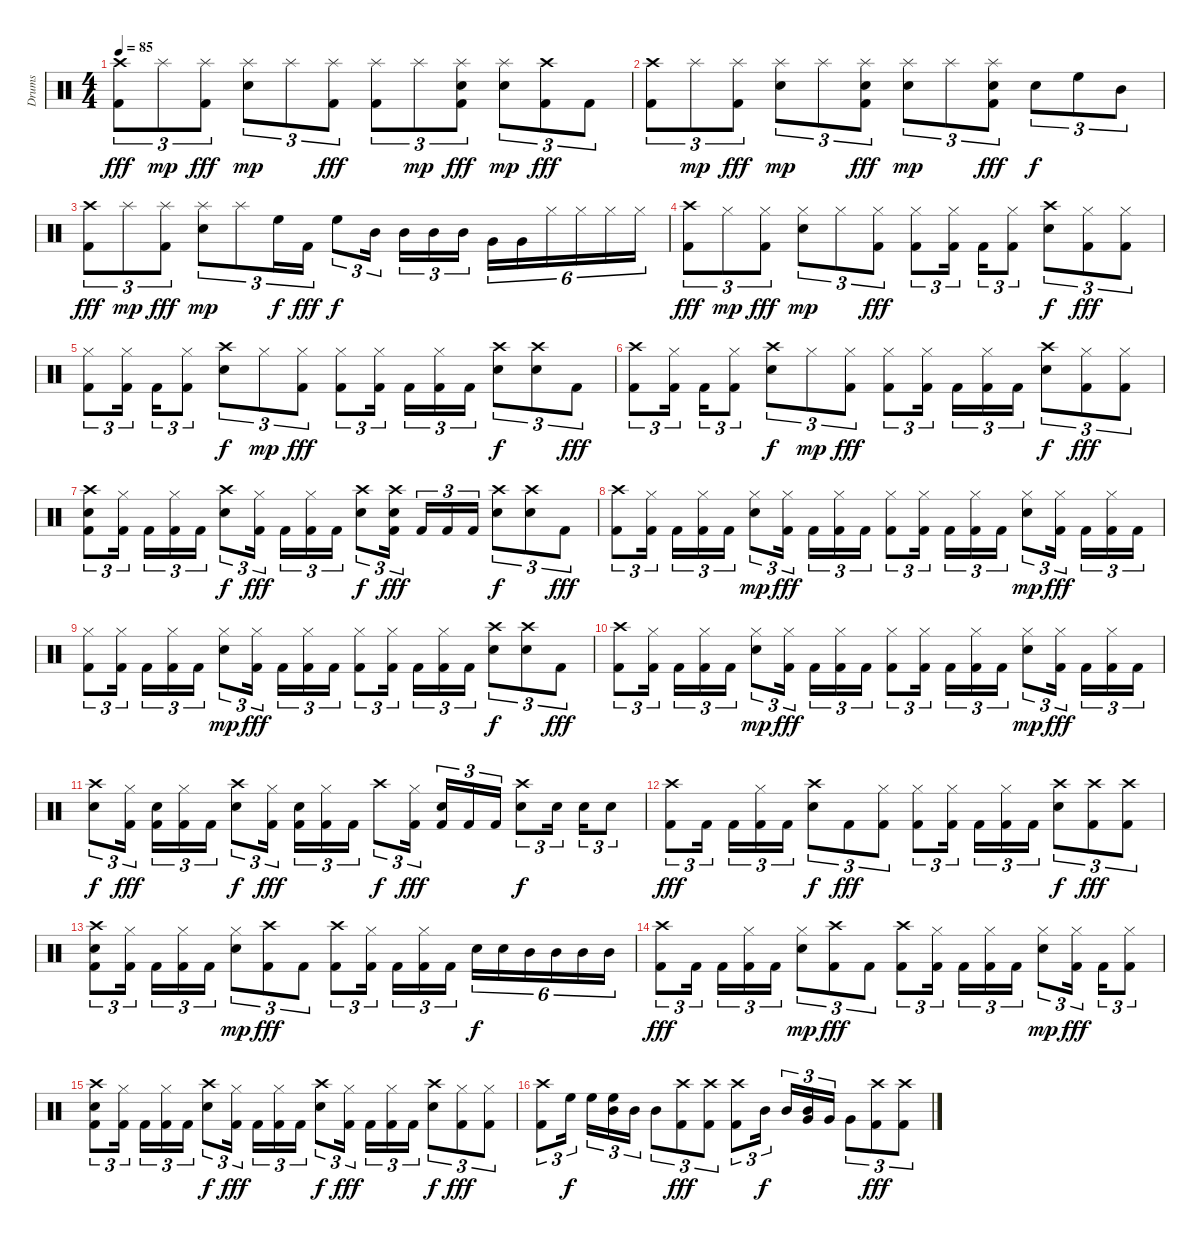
\track ("Drums" "Drums") {instrument percussion}
\staff {score}
\articulation defaults
\ts (4 4)
\tempo 85
\clef neutral
\ks c
("Crash high (hit)" "Kick (hit) 2").8{tu (3 2) dy fff} "Splash (hit)".8{tu (3 2) dy mp} ("Splash (hit)" "Kick (hit) 2").8{tu (3 2) dy fff} ("Snare (hit) 2" "Splash (hit)").8{tu (3 2) dy mp} "Splash (hit)".8{tu (3 2)} ("Splash (hit)" "Kick (hit) 2").8{tu (3 2) dy fff} ("Splash (hit)" "Kick (hit) 2").8{tu (3 2)} "Splash (hit)".8{tu (3 2) dy mp} ("Snare (hit) 2" "Splash (hit)" "Kick (hit) 2").8{tu (3 2) dy fff} ("Snare (hit) 2" "Splash (hit)").8{tu (3 2) dy mp} ("Crash high (hit)" "Kick (hit) 2").8{tu (3 2) dy fff} "Kick (hit) 2".8{tu (3 2)} |
("Crash high (hit)" "Kick (hit) 2").8{tu (3 2)} "Splash (hit)".8{tu (3 2) dy mp} ("Splash (hit)" "Kick (hit) 2").8{tu (3 2) dy fff} ("Snare (hit) 2" "Splash (hit)").8{tu (3 2) dy mp} "Splash (hit)".8{tu (3 2)} ("Snare (hit) 2" "Splash (hit)" "Kick (hit) 2").8{tu (3 2) dy fff} ("Snare (hit) 2" "Splash (hit)").8{tu (3 2) dy mp} "Splash (hit)".8{tu (3 2)} ("Snare (hit) 2" "Splash (hit)" "Kick (hit) 2").8{tu (3 2) dy fff} "Snare (hit) 2".8{tu (3 2) dy f} "High Floor Tom (hit)".8{tu (3 2)} "Mid Tom (hit)".8{tu (3 2)} |
("Crash high (hit)" "Kick (hit) 2").8{tu (3 2) dy fff} "Splash (hit)".8{tu (3 2) dy mp} ("Splash (hit)" "Kick (hit) 2").8{tu (3 2) dy fff} ("Snare (hit) 2" "Splash (hit)").8{tu (3 2) dy mp} "Splash (hit)".8{tu (3 2)} "High Floor Tom (hit)".16{tu (3 2) dy f} "Kick (hit) 2".16{tu (3 2) dy fff} "High Floor Tom (hit)".8{tu (3 2) dy f} "Mid Tom (hit)".16{tu (3 2)} "Mid Tom (hit)".16{tu (3 2)} "Mid Tom (hit)".16{tu (3 2)} "Mid Tom (hit)".16{tu (3 2)} "Very Low Tom (hit)".16{tu (6 4)} "Very Low Tom (hit)".16{tu (6 4)} "Hi-Hat (closed)".16{tu (6 4)} "Hi-Hat (closed)".16{tu (6 4)} "Hi-Hat (closed)".16{tu (6 4)} "Hi-Hat (closed)".16{tu (6 4)} |
("Crash high (hit)" "Kick (hit) 2").8{tu (3 2) dy fff} "Hi-Hat (closed)".8{tu (3 2) dy mp} ("Hi-Hat (closed)" "Kick (hit) 2").8{tu (3 2) dy fff} ("Snare (hit) 2" "Hi-Hat (closed)").8{tu (3 2) dy mp} "Hi-Hat (closed)".8{tu (3 2)} ("Hi-Hat (closed)" "Kick (hit) 2").8{tu (3 2) dy fff} ("Hi-Hat (closed)" "Kick (hit) 2").8{tu (3 2)} ("Hi-Hat (closed)" "Kick (hit) 2").16{tu (3 2)} "Kick (hit) 2".16{tu (3 2)} ("Hi-Hat (closed)" "Kick (hit) 2").8{tu (3 2)} ("Snare (hit) 2" "Crash high (hit)").8{tu (3 2) dy f} ("Hi-Hat (closed)" "Kick (hit) 2").8{tu (3 2) dy fff} ("Hi-Hat (closed)" "Kick (hit) 2").8{tu (3 2)} |
("Hi-Hat (closed)" "Kick (hit) 2").8{tu (3 2)} ("Hi-Hat (closed)" "Kick (hit) 2").16{tu (3 2)} "Kick (hit) 2".16{tu (3 2)} ("Hi-Hat (closed)" "Kick (hit) 2").8{tu (3 2)} ("Snare (hit) 2" "Crash high (hit)").8{tu (3 2) dy f} "Hi-Hat (closed)".8{tu (3 2) dy mp} ("Hi-Hat (closed)" "Kick (hit) 2").8{tu (3 2) dy fff} ("Hi-Hat (closed)" "Kick (hit) 2").8{tu (3 2)} ("Hi-Hat (closed)" "Kick (hit) 2").16{tu (3 2)} "Kick (hit) 2".16{tu (3 2)} ("Hi-Hat (closed)" "Kick (hit) 2").16{tu (3 2)} "Kick (hit) 2".16{tu (3 2)} ("Crash high (hit)" "Snare (hit) 2").8{tu (3 2) dy f} ("Crash high (hit)" "Snare (hit) 2").8{tu (3 2)} "Kick (hit) 2".8{tu (3 2) dy fff} |
("Crash high (hit)" "Kick (hit) 2").8{tu (3 2)} ("Hi-Hat (closed)" "Kick (hit) 2").16{tu (3 2)} "Kick (hit) 2".16{tu (3 2)} ("Hi-Hat (closed)" "Kick (hit) 2").8{tu (3 2)} ("Snare (hit) 2" "Crash high (hit)").8{tu (3 2) dy f} "Hi-Hat (closed)".8{tu (3 2) dy mp} ("Hi-Hat (closed)" "Kick (hit) 2").8{tu (3 2) dy fff} ("Hi-Hat (closed)" "Kick (hit) 2").8{tu (3 2)} ("Hi-Hat (closed)" "Kick (hit) 2").16{tu (3 2)} "Kick (hit) 2".16{tu (3 2)} ("Hi-Hat (closed)" "Kick (hit) 2").16{tu (3 2)} "Kick (hit) 2".16{tu (3 2)} ("Snare (hit) 2" "Crash high (hit)").8{tu (3 2) dy f} ("Hi-Hat (closed)" "Kick (hit) 2").8{tu (3 2) dy fff} ("Hi-Hat (closed)" "Kick (hit) 2").8{tu (3 2)} |
("Snare (hit) 2" "Crash high (hit)" "Kick (hit) 2").8{tu (3 2)} ("Hi-Hat (closed)" "Kick (hit) 2").16{tu (3 2)} "Kick (hit) 2".16{tu (3 2)} ("Hi-Hat (closed)" "Kick (hit) 2").16{tu (3 2)} "Kick (hit) 2".16{tu (3 2)} ("Snare (hit) 2" "Crash high (hit)").8{tu (3 2) dy f} ("Hi-Hat (closed)" "Kick (hit) 2").16{tu (3 2) dy fff} "Kick (hit) 2".16{tu (3 2)} ("Hi-Hat (closed)" "Kick (hit) 2").16{tu (3 2)} "Kick (hit) 2".16{tu (3 2)} ("Crash high (hit)" "Snare (hit) 2").8{tu (3 2) dy f} ("Crash high (hit)" "Snare (hit) 2" "Kick (hit) 2").16{tu (3 2) dy fff} "Kick (hit) 2".16{tu (3 2)} "Kick (hit) 2".16{tu (3 2)} "Kick (hit) 2".16{tu (3 2)} ("Crash high (hit)" "Snare (hit) 2").8{tu (3 2) dy f} ("Crash high (hit)" "Snare (hit) 2").8{tu (3 2)} "Kick (hit) 2".8{tu (3 2) dy fff} |
("Crash high (hit)" "Kick (hit) 2").8{tu (3 2)} ("Hi-Hat (closed)" "Kick (hit) 2").16{tu (3 2)} "Kick (hit) 2".16{tu (3 2)} ("Hi-Hat (closed)" "Kick (hit) 2").16{tu (3 2)} "Kick (hit) 2".16{tu (3 2)} ("Snare (hit) 2" "Hi-Hat (closed)").8{tu (3 2) dy mp} ("Hi-Hat (closed)" "Kick (hit) 2").16{tu (3 2) dy fff} "Kick (hit) 2".16{tu (3 2)} ("Hi-Hat (closed)" "Kick (hit) 2").16{tu (3 2)} "Kick (hit) 2".16{tu (3 2)} ("Hi-Hat (closed)" "Kick (hit) 2").8{tu (3 2)} ("Hi-Hat (closed)" "Kick (hit) 2").16{tu (3 2)} "Kick (hit) 2".16{tu (3 2)} ("Hi-Hat (closed)" "Kick (hit) 2").16{tu (3 2)} "Kick (hit) 2".16{tu (3 2)} ("Snare (hit) 2" "Hi-Hat (closed)").8{tu (3 2) dy mp} ("Hi-Hat (closed)" "Kick (hit) 2").16{tu (3 2) dy fff} "Kick (hit) 2".16{tu (3 2)} ("Hi-Hat (closed)" "Kick (hit) 2").16{tu (3 2)} "Kick (hit) 2".16{tu (3 2)} |
("Hi-Hat (closed)" "Kick (hit) 2").8{tu (3 2)} ("Hi-Hat (closed)" "Kick (hit) 2").16{tu (3 2)} "Kick (hit) 2".16{tu (3 2)} ("Hi-Hat (closed)" "Kick (hit) 2").16{tu (3 2)} "Kick (hit) 2".16{tu (3 2)} ("Snare (hit) 2" "Hi-Hat (closed)").8{tu (3 2) dy mp} ("Hi-Hat (closed)" "Kick (hit) 2").16{tu (3 2) dy fff} "Kick (hit) 2".16{tu (3 2)} ("Hi-Hat (closed)" "Kick (hit) 2").16{tu (3 2)} "Kick (hit) 2".16{tu (3 2)} ("Hi-Hat (closed)" "Kick (hit) 2").8{tu (3 2)} ("Hi-Hat (closed)" "Kick (hit) 2").16{tu (3 2)} "Kick (hit) 2".16{tu (3 2)} ("Hi-Hat (closed)" "Kick (hit) 2").16{tu (3 2)} "Kick (hit) 2".16{tu (3 2)} ("Crash high (hit)" "Snare (hit) 2").8{tu (3 2) dy f} ("Crash high (hit)" "Snare (hit) 2").8{tu (3 2)} "Kick (hit) 2".8{tu (3 2) dy fff} |
("Crash high (hit)" "Kick (hit) 2").8{tu (3 2)} ("Hi-Hat (closed)" "Kick (hit) 2").16{tu (3 2)} "Kick (hit) 2".16{tu (3 2)} ("Hi-Hat (closed)" "Kick (hit) 2").16{tu (3 2)} "Kick (hit) 2".16{tu (3 2)} ("Snare (hit) 2" "Hi-Hat (closed)").8{tu (3 2) dy mp} ("Hi-Hat (closed)" "Kick (hit) 2").16{tu (3 2) dy fff} "Kick (hit) 2".16{tu (3 2)} ("Hi-Hat (closed)" "Kick (hit) 2").16{tu (3 2)} "Kick (hit) 2".16{tu (3 2)} ("Hi-Hat (closed)" "Kick (hit) 2").8{tu (3 2)} ("Hi-Hat (closed)" "Kick (hit) 2").16{tu (3 2)} "Kick (hit) 2".16{tu (3 2)} ("Hi-Hat (closed)" "Kick (hit) 2").16{tu (3 2)} "Kick (hit) 2".16{tu (3 2)} ("Snare (hit) 2" "Hi-Hat (closed)").8{tu (3 2) dy mp} ("Hi-Hat (closed)" "Kick (hit) 2").16{tu (3 2) dy fff} "Kick (hit) 2".16{tu (3 2)} ("Hi-Hat (closed)" "Kick (hit) 2").16{tu (3 2)} "Kick (hit) 2".16{tu (3 2)} |
("Snare (hit) 2" "Crash high (hit)").8{tu (3 2) dy f} ("Hi-Hat (closed)" "Kick (hit) 2").16{tu (3 2) dy fff} ("Snare (hit) 2" "Kick (hit) 2").16{tu (3 2)} ("Hi-Hat (closed)" "Kick (hit) 2").16{tu (3 2)} "Kick (hit) 2".16{tu (3 2)} ("Snare (hit) 2" "Crash high (hit)").8{tu (3 2) dy f} ("Hi-Hat (closed)" "Kick (hit) 2").16{tu (3 2) dy fff} ("Snare (hit) 2" "Kick (hit) 2").16{tu (3 2)} ("Hi-Hat (closed)" "Kick (hit) 2").16{tu (3 2)} "Kick (hit) 2".16{tu (3 2)} "Crash high (hit)".8{tu (3 2) dy f} ("Hi-Hat (closed)" "Kick (hit) 2").16{tu (3 2) dy fff} ("Snare (hit) 2" "Kick (hit) 2").16{tu (3 2)} "Kick (hit) 2".16{tu (3 2)} "Kick (hit) 2".16{tu (3 2)} ("Snare (hit) 2" "Crash high (hit)").8{tu (3 2) dy f} "Snare (hit) 2".16{tu (3 2)} "Snare (hit) 2".16{tu (3 2)} "Snare (hit) 2".8{tu (3 2)} |
("Crash high (hit)" "Kick (hit) 2").8{tu (3 2) dy fff} "Kick (hit) 2".16{tu (3 2)} "Kick (hit) 2".16{tu (3 2)} ("Hi-Hat (closed)" "Kick (hit) 2").16{tu (3 2)} "Kick (hit) 2".16{tu (3 2)} ("Snare (hit) 2" "Crash high (hit)").8{tu (3 2) dy f} "Kick (hit) 2".8{tu (3 2) dy fff} ("Hi-Hat (closed)" "Kick (hit) 2").8{tu (3 2)} ("Hi-Hat (closed)" "Kick (hit) 2").8{tu (3 2)} ("Hi-Hat (closed)" "Kick (hit) 2").16{tu (3 2)} "Kick (hit) 2".16{tu (3 2)} ("Hi-Hat (closed)" "Kick (hit) 2").16{tu (3 2)} "Kick (hit) 2".16{tu (3 2)} ("Snare (hit) 2" "Crash high (hit)").8{tu (3 2) dy f} ("Crash high (hit)" "Kick (hit) 2").8{tu (3 2) dy fff} ("Crash high (hit)" "Kick (hit) 2").8{tu (3 2)} |
("Crash high (hit)" "Snare (hit) 2" "Kick (hit) 2").8{tu (3 2)} ("Hi-Hat (closed)" "Kick (hit) 2").16{tu (3 2)} "Kick (hit) 2".16{tu (3 2)} ("Hi-Hat (closed)" "Kick (hit) 2").16{tu (3 2)} "Kick (hit) 2".16{tu (3 2)} ("Snare (hit) 2" "Hi-Hat (closed)").8{tu (3 2) dy mp} ("Crash high (hit)" "Kick (hit) 2").8{tu (3 2) dy fff} "Kick (hit) 2".8{tu (3 2)} ("Crash high (hit)" "Kick (hit) 2").8{tu (3 2)} ("Hi-Hat (closed)" "Kick (hit) 2").16{tu (3 2)} "Kick (hit) 2".16{tu (3 2)} ("Hi-Hat (closed)" "Kick (hit) 2").16{tu (3 2)} "Kick (hit) 2".16{tu (3 2)} "Snare (hit) 2".16{tu (6 4) dy f} "Snare (hit) 2".16{tu (6 4)} "Mid Tom (hit)".16{tu (6 4)} "Mid Tom (hit)".16{tu (6 4)} "Mid Tom (hit)".16{tu (6 4)} "Mid Tom (hit)".16{tu (6 4)} |
("Crash high (hit)" "Kick (hit) 2").8{tu (3 2) dy fff} "Kick (hit) 2".16{tu (3 2)} "Kick (hit) 2".16{tu (3 2)} ("Hi-Hat (closed)" "Kick (hit) 2").16{tu (3 2)} "Kick (hit) 2".16{tu (3 2)} ("Snare (hit) 2" "Hi-Hat (closed)").8{tu (3 2) dy mp} ("Crash high (hit)" "Kick (hit) 2").8{tu (3 2) dy fff} "Kick (hit) 2".8{tu (3 2)} ("Crash high (hit)" "Kick (hit) 2").8{tu (3 2)} ("Hi-Hat (closed)" "Kick (hit) 2").16{tu (3 2)} "Kick (hit) 2".16{tu (3 2)} ("Hi-Hat (closed)" "Kick (hit) 2").16{tu (3 2)} "Kick (hit) 2".16{tu (3 2)} ("Snare (hit) 2" "Hi-Hat (closed)").8{tu (3 2) dy mp} ("Hi-Hat (closed)" "Kick (hit) 2").16{tu (3 2) dy fff} "Kick (hit) 2".16{tu (3 2)} ("Hi-Hat (closed)" "Kick (hit) 2").8{tu (3 2)} |
("Snare (hit) 2" "Crash high (hit)" "Kick (hit) 2").8{tu (3 2)} ("Hi-Hat (closed)" "Kick (hit) 2").16{tu (3 2)} "Kick (hit) 2".16{tu (3 2)} ("Hi-Hat (closed)" "Kick (hit) 2").16{tu (3 2)} "Kick (hit) 2".16{tu (3 2)} ("Snare (hit) 2" "Crash high (hit)").8{tu (3 2) dy f} ("Hi-Hat (closed)" "Kick (hit) 2").16{tu (3 2) dy fff} "Kick (hit) 2".16{tu (3 2)} ("Hi-Hat (closed)" "Kick (hit) 2").16{tu (3 2)} "Kick (hit) 2".16{tu (3 2)} ("Snare (hit) 2" "Crash high (hit)").8{tu (3 2) dy f} ("Hi-Hat (closed)" "Kick (hit) 2").16{tu (3 2) dy fff} "Kick (hit) 2".16{tu (3 2)} ("Hi-Hat (closed)" "Kick (hit) 2").16{tu (3 2)} "Kick (hit) 2".16{tu (3 2)} ("Snare (hit) 2" "Crash high (hit)").8{tu (3 2) dy f} ("Hi-Hat (closed)" "Kick (hit) 2").8{tu (3 2) dy fff} ("Hi-Hat (closed)" "Kick (hit) 2").8{tu (3 2)} |
("Crash high (hit)" "Kick (hit) 2").8{tu (3 2)} "High Floor Tom (hit)".16{tu (3 2) dy f} "High Floor Tom (hit)".16{tu (3 2)} ("High Floor Tom (hit)" "Mid Tom (hit)").16{tu (3 2)} "Mid Tom (hit)".16{tu (3 2)} "Mid Tom (hit)".8{tu (3 2)} ("Crash high (hit)" "Kick (hit) 2").8{tu (3 2) dy fff} ("Crash high (hit)" "Kick (hit) 2").8{tu (3 2)} ("Crash high (hit)" "Kick (hit) 2").8{tu (3 2)} "Mid Tom (hit)".16{tu (3 2) dy f} "Mid Tom (hit)".16{tu (3 2)} ("Mid Tom (hit)" "Very Low Tom (hit)").16{tu (3 2)} "Very Low Tom (hit)".16{tu (3 2)} "Very Low Tom (hit)".8{tu (3 2)} ("Crash high (hit)" "Kick (hit) 2").8{tu (3 2) dy fff} ("Crash high (hit)" "Kick (hit) 2").8{tu (3 2)}
